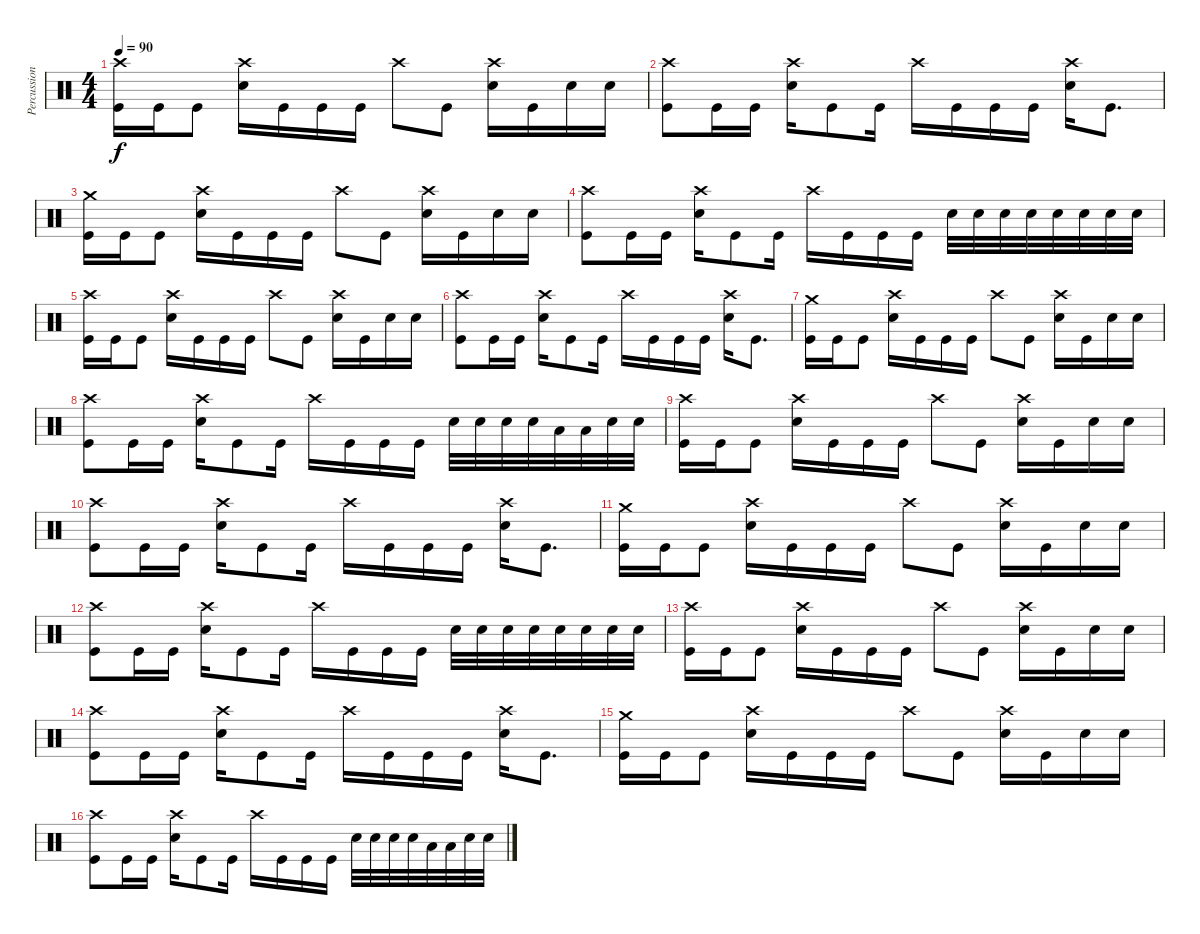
\track ("Percussion" "Percussion") {instrument percussion}
\staff {score}
\articulation defaults
\ts (4 4)
\tempo 90
\clef neutral
\ks c
("Crash high (hit)" "Kick (hit)").16{dy f} "Kick (hit)".16 "Kick (hit)".8 ("Crash high (hit)" "Electric Snare (hit)").16 "Kick (hit)".16 "Kick (hit)".16 "Kick (hit)".16 "Crash high (hit)".8 "Kick (hit)".8 ("Crash high (hit)" "Electric Snare (hit)").16 "Kick (hit)".16 "Electric Snare (hit)".16 "Electric Snare (hit)".16 |
("Crash high (hit)" "Kick (hit)").8 "Kick (hit)".16 "Kick (hit)".16 ("Crash high (hit)" "Electric Snare (hit)").16 "Kick (hit)".8 "Kick (hit)".16 "Crash high (hit)".16 "Kick (hit)".16 "Kick (hit)".16 "Kick (hit)".16 ("Crash high (hit)" "Electric Snare (hit)").16 "Kick (hit)".8{d} |
("Crash medium (hit)" "Kick (hit)").16 "Kick (hit)".16 "Kick (hit)".8 ("Crash high (hit)" "Electric Snare (hit)").16 "Kick (hit)".16 "Kick (hit)".16 "Kick (hit)".16 "Crash high (hit)".8 "Kick (hit)".8 ("Crash high (hit)" "Electric Snare (hit)").16 "Kick (hit)".16 "Electric Snare (hit)".16 "Electric Snare (hit)".16 |
("Crash high (hit)" "Kick (hit)").8 "Kick (hit)".16 "Kick (hit)".16 ("Crash high (hit)" "Electric Snare (hit)").16 "Kick (hit)".8 "Kick (hit)".16 "Crash high (hit)".16 "Kick (hit)".16 "Kick (hit)".16 "Kick (hit)".16 "Electric Snare (hit)".32 "Electric Snare (hit)".32 "Electric Snare (hit)".32 "Electric Snare (hit)".32 "Electric Snare (hit)".32 "Electric Snare (hit)".32 "Electric Snare (hit)".32 "Electric Snare (hit)".32 |
("Crash high (hit)" "Kick (hit)").16 "Kick (hit)".16 "Kick (hit)".8 ("Crash high (hit)" "Electric Snare (hit)").16 "Kick (hit)".16 "Kick (hit)".16 "Kick (hit)".16 "Crash high (hit)".8 "Kick (hit)".8 ("Crash high (hit)" "Electric Snare (hit)").16 "Kick (hit)".16 "Electric Snare (hit)".16 "Electric Snare (hit)".16 |
("Crash high (hit)" "Kick (hit)").8 "Kick (hit)".16 "Kick (hit)".16 ("Crash high (hit)" "Electric Snare (hit)").16 "Kick (hit)".8 "Kick (hit)".16 "Crash high (hit)".16 "Kick (hit)".16 "Kick (hit)".16 "Kick (hit)".16 ("Crash high (hit)" "Electric Snare (hit)").16 "Kick (hit)".8{d} |
("Crash medium (hit)" "Kick (hit)").16 "Kick (hit)".16 "Kick (hit)".8 ("Crash high (hit)" "Electric Snare (hit)").16 "Kick (hit)".16 "Kick (hit)".16 "Kick (hit)".16 "Crash high (hit)".8 "Kick (hit)".8 ("Crash high (hit)" "Electric Snare (hit)").16 "Kick (hit)".16 "Electric Snare (hit)".16 "Electric Snare (hit)".16 |
("Crash high (hit)" "Kick (hit)").8 "Kick (hit)".16 "Kick (hit)".16 ("Crash high (hit)" "Electric Snare (hit)").16 "Kick (hit)".8 "Kick (hit)".16 "Crash high (hit)".16 "Kick (hit)".16 "Kick (hit)".16 "Kick (hit)".16 "Electric Snare (hit)".32 "Electric Snare (hit)".32 "Electric Snare (hit)".32 "Electric Snare (hit)".32 "Low Tom (hit)".32 "Low Tom (hit)".32 "Electric Snare (hit)".32 "Electric Snare (hit)".32 |
("Crash high (hit)" "Kick (hit)").16 "Kick (hit)".16 "Kick (hit)".8 ("Crash high (hit)" "Electric Snare (hit)").16 "Kick (hit)".16 "Kick (hit)".16 "Kick (hit)".16 "Crash high (hit)".8 "Kick (hit)".8 ("Crash high (hit)" "Electric Snare (hit)").16 "Kick (hit)".16 "Electric Snare (hit)".16 "Electric Snare (hit)".16 |
("Crash high (hit)" "Kick (hit)").8 "Kick (hit)".16 "Kick (hit)".16 ("Crash high (hit)" "Electric Snare (hit)").16 "Kick (hit)".8 "Kick (hit)".16 "Crash high (hit)".16 "Kick (hit)".16 "Kick (hit)".16 "Kick (hit)".16 ("Crash high (hit)" "Electric Snare (hit)").16 "Kick (hit)".8{d} |
("Crash medium (hit)" "Kick (hit)").16 "Kick (hit)".16 "Kick (hit)".8 ("Crash high (hit)" "Electric Snare (hit)").16 "Kick (hit)".16 "Kick (hit)".16 "Kick (hit)".16 "Crash high (hit)".8 "Kick (hit)".8 ("Crash high (hit)" "Electric Snare (hit)").16 "Kick (hit)".16 "Electric Snare (hit)".16 "Electric Snare (hit)".16 |
("Crash high (hit)" "Kick (hit)").8 "Kick (hit)".16 "Kick (hit)".16 ("Crash high (hit)" "Electric Snare (hit)").16 "Kick (hit)".8 "Kick (hit)".16 "Crash high (hit)".16 "Kick (hit)".16 "Kick (hit)".16 "Kick (hit)".16 "Electric Snare (hit)".32 "Electric Snare (hit)".32 "Electric Snare (hit)".32 "Electric Snare (hit)".32 "Electric Snare (hit)".32 "Electric Snare (hit)".32 "Electric Snare (hit)".32 "Electric Snare (hit)".32 |
("Crash high (hit)" "Kick (hit)").16 "Kick (hit)".16 "Kick (hit)".8 ("Crash high (hit)" "Electric Snare (hit)").16 "Kick (hit)".16 "Kick (hit)".16 "Kick (hit)".16 "Crash high (hit)".8 "Kick (hit)".8 ("Crash high (hit)" "Electric Snare (hit)").16 "Kick (hit)".16 "Electric Snare (hit)".16 "Electric Snare (hit)".16 |
("Crash high (hit)" "Kick (hit)").8 "Kick (hit)".16 "Kick (hit)".16 ("Crash high (hit)" "Electric Snare (hit)").16 "Kick (hit)".8 "Kick (hit)".16 "Crash high (hit)".16 "Kick (hit)".16 "Kick (hit)".16 "Kick (hit)".16 ("Crash high (hit)" "Electric Snare (hit)").16 "Kick (hit)".8{d} |
("Crash medium (hit)" "Kick (hit)").16 "Kick (hit)".16 "Kick (hit)".8 ("Crash high (hit)" "Electric Snare (hit)").16 "Kick (hit)".16 "Kick (hit)".16 "Kick (hit)".16 "Crash high (hit)".8 "Kick (hit)".8 ("Crash high (hit)" "Electric Snare (hit)").16 "Kick (hit)".16 "Electric Snare (hit)".16 "Electric Snare (hit)".16 |
("Crash high (hit)" "Kick (hit)").8 "Kick (hit)".16 "Kick (hit)".16 ("Crash high (hit)" "Electric Snare (hit)").16 "Kick (hit)".8 "Kick (hit)".16 "Crash high (hit)".16 "Kick (hit)".16 "Kick (hit)".16 "Kick (hit)".16 "Electric Snare (hit)".32 "Electric Snare (hit)".32 "Electric Snare (hit)".32 "Electric Snare (hit)".32 "Low Tom (hit)".32 "Low Tom (hit)".32 "Electric Snare (hit)".32 "Electric Snare (hit)".32
